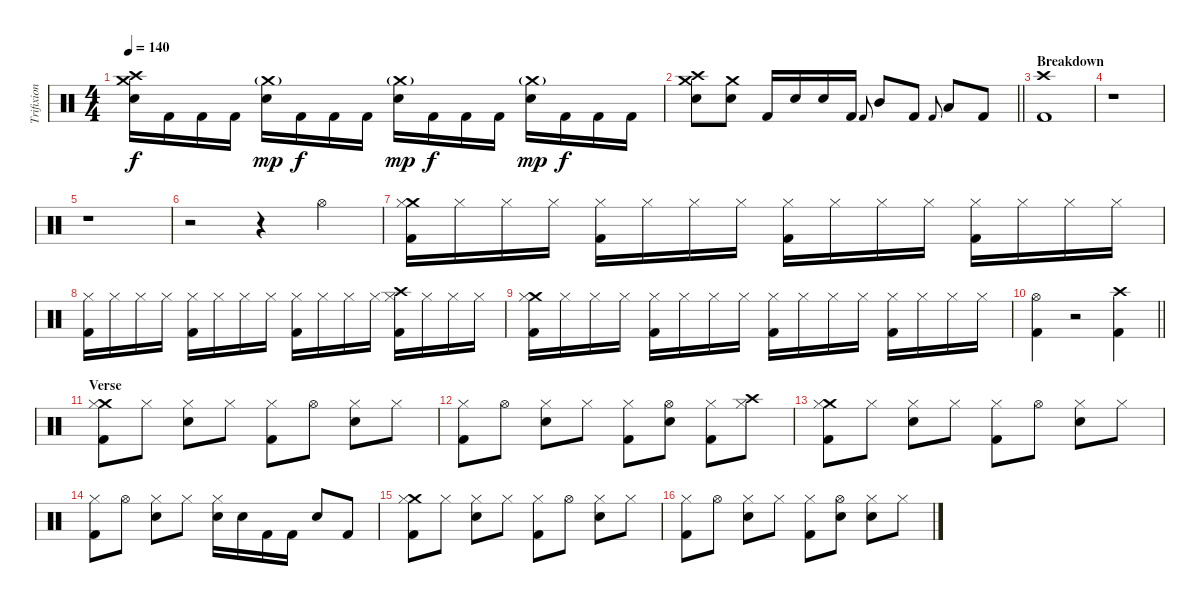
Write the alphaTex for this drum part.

\track ("Trifixion of the Horned King" "Trifixion ") {instrument percussion}
\staff {score}
\articulation defaults
\ts (4 4)
\tempo 140
\clef neutral
\ks c
("Crash high (hit)" "Crash medium (hit)" "Electric Snare (hit)").16{dy f} "Kick (hit) 2".16 "Kick (hit) 2".16 "Kick (hit) 2".16 ("Crash medium (hit)"{g} "Electric Snare (hit)").16{dy mp} "Kick (hit) 2".16{dy f} "Kick (hit) 2".16 "Kick (hit) 2".16 ("Crash medium (hit)"{g} "Electric Snare (hit)").16{dy mp} "Kick (hit) 2".16{dy f} "Kick (hit) 2".16 "Kick (hit) 2".16 ("Crash medium (hit)"{g} "Electric Snare (hit)").16{dy mp} "Kick (hit) 2".16{dy f} "Kick (hit) 2".16 "Kick (hit) 2".16 |
\barLineRight lightlight
("Crash medium (hit)" "Crash high (hit)" "Electric Snare (hit)").8 ("Crash medium (hit)" "Electric Snare (hit)").8 "Kick (hit) 2".16 "Electric Snare (hit)".16 "Electric Snare (hit)".16 "Kick (hit) 2".16 "Kick (hit) 2".8{gr onbeat} "Mid Tom (hit)".8 "Kick (hit) 2".8 "Kick (hit) 2".8{gr onbeat} "Low Tom (hit)".8 "Kick (hit) 2".8 |
\section ("" "Breakdown")
("Crash high (hit)" "Kick (hit) 2").1 |
r.1 |
r.1 |
r.2 r.4 "Hi-Hat (open)".4 |
("Crash medium (hit)" "Hi-Hat (closed)" "Kick (hit) 2").16 "Hi-Hat (closed)".16 "Hi-Hat (closed)".16 "Hi-Hat (closed)".16 ("Hi-Hat (closed)" "Kick (hit) 2").16 "Hi-Hat (closed)".16 "Hi-Hat (closed)".16 "Hi-Hat (closed)".16 ("Hi-Hat (closed)" "Kick (hit) 2").16 "Hi-Hat (closed)".16 "Hi-Hat (closed)".16 "Hi-Hat (closed)".16 ("Hi-Hat (closed)" "Kick (hit) 2").16 "Hi-Hat (closed)".16 "Hi-Hat (closed)".16 "Hi-Hat (closed)".16 |
("Hi-Hat (closed)" "Kick (hit) 2").16 "Hi-Hat (closed)".16 "Hi-Hat (closed)".16 "Hi-Hat (closed)".16 ("Hi-Hat (closed)" "Kick (hit) 2").16 "Hi-Hat (closed)".16 "Hi-Hat (closed)".16 "Hi-Hat (closed)".16 ("Hi-Hat (closed)" "Kick (hit) 2").16 "Hi-Hat (closed)".16 "Hi-Hat (closed)".16 "Hi-Hat (closed)".16 ("Crash high (hit)" "Hi-Hat (closed)" "Kick (hit) 2").16 "Hi-Hat (closed)".16 "Hi-Hat (closed)".16 "Hi-Hat (closed)".16 |
("Crash medium (hit)" "Hi-Hat (closed)" "Kick (hit) 2").16 "Hi-Hat (closed)".16 "Hi-Hat (closed)".16 "Hi-Hat (closed)".16 ("Hi-Hat (closed)" "Kick (hit) 2").16 "Hi-Hat (closed)".16 "Hi-Hat (closed)".16 "Hi-Hat (closed)".16 ("Hi-Hat (closed)" "Kick (hit) 2").16 "Hi-Hat (closed)".16 "Hi-Hat (closed)".16 "Hi-Hat (closed)".16 ("Hi-Hat (closed)" "Kick (hit) 2").16 "Hi-Hat (closed)".16 "Hi-Hat (closed)".16 "Hi-Hat (closed)".16 |
\barLineRight lightlight
("Hi-Hat (open)" "Kick (hit) 2").4 r.2 ("Crash high (hit)" "Kick (hit) 2").4 |
\section ("" "Verse")
("Crash medium (hit)" "Hi-Hat (closed)" "Kick (hit) 2").8 "Hi-Hat (closed)".8 ("Hi-Hat (closed)" "Electric Snare (hit)").8 "Hi-Hat (closed)".8 ("Hi-Hat (closed)" "Kick (hit) 2").8 "Hi-Hat (open)".8 ("Hi-Hat (closed)" "Electric Snare (hit)").8 "Hi-Hat (closed)".8 |
("Hi-Hat (closed)" "Kick (hit) 2").8 "Hi-Hat (open)".8 ("Hi-Hat (closed)" "Electric Snare (hit)").8 "Hi-Hat (closed)".8 ("Hi-Hat (closed)" "Kick (hit) 2").8 ("Hi-Hat (open)" "Electric Snare (hit)").8 ("Hi-Hat (closed)" "Kick (hit) 2").8 ("Crash high (hit)" "Hi-Hat (closed)").8 |
("Crash medium (hit)" "Hi-Hat (closed)" "Kick (hit) 2").8 "Hi-Hat (closed)".8 ("Hi-Hat (closed)" "Electric Snare (hit)").8 "Hi-Hat (closed)".8 ("Hi-Hat (closed)" "Kick (hit) 2").8 "Hi-Hat (open)".8 ("Hi-Hat (closed)" "Electric Snare (hit)").8 "Hi-Hat (closed)".8 |
("Hi-Hat (closed)" "Kick (hit) 2").8 "Hi-Hat (open)".8 ("Hi-Hat (closed)" "Electric Snare (hit)").8 "Hi-Hat (closed)".8 ("Hi-Hat (closed)" "Electric Snare (hit)").16 "Electric Snare (hit)".16 "Kick (hit) 2".16 "Kick (hit) 2".16 "Electric Snare (hit)".8 "Kick (hit) 2".8 |
("Crash medium (hit)" "Hi-Hat (closed)" "Kick (hit) 2").8 "Hi-Hat (closed)".8 ("Hi-Hat (closed)" "Electric Snare (hit)").8 "Hi-Hat (closed)".8 ("Hi-Hat (closed)" "Kick (hit) 2").8 "Hi-Hat (open)".8 ("Hi-Hat (closed)" "Electric Snare (hit)").8 "Hi-Hat (closed)".8 |
("Hi-Hat (closed)" "Kick (hit) 2").8 "Hi-Hat (open)".8 ("Hi-Hat (closed)" "Electric Snare (hit)").8 "Hi-Hat (closed)".8 ("Hi-Hat (closed)" "Kick (hit) 2").8 ("Hi-Hat (open)" "Electric Snare (hit)").8 ("Hi-Hat (closed)" "Electric Snare (hit)").8 "Hi-Hat (closed)".8
